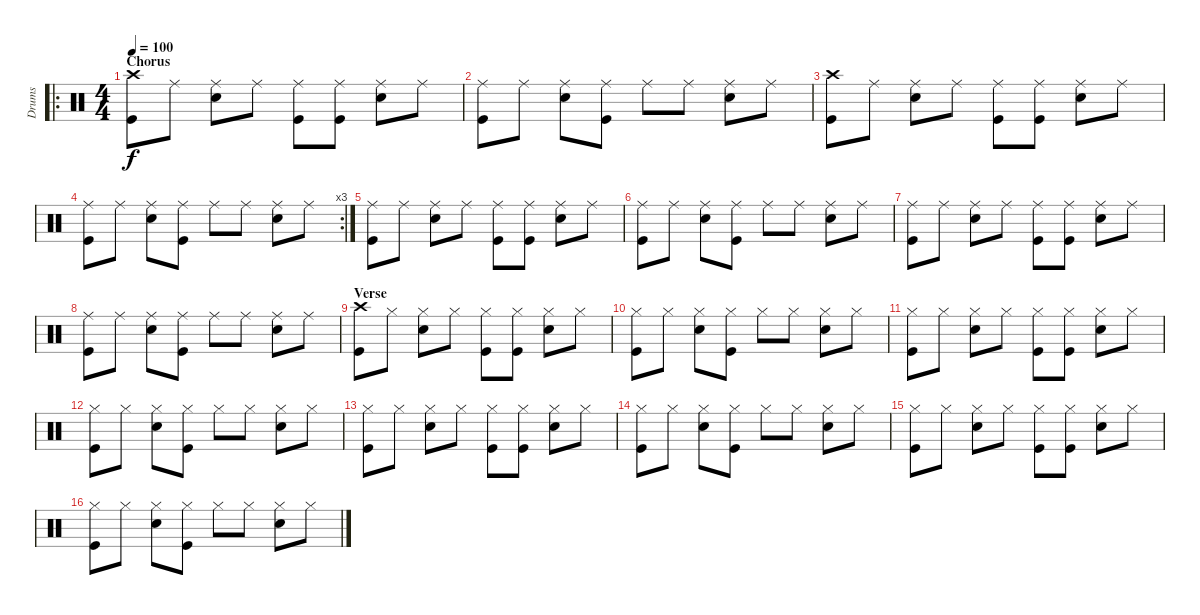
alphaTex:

\track ("Drums" "Drums") {instrument percussion}
\staff {score}
\articulation defaults
\ro
\ts (4 4)
\section ("" "Chorus")
\tempo 100
\clef neutral
\ks c
("Crash high (hit)" "Kick (hit)").8{dy f} "Ride (middle)".8 ("Ride (middle)" "Snare (hit) 2").8 "Ride (middle)".8 ("Ride (middle)" "Kick (hit)").8 ("Ride (middle)" "Kick (hit)").8 ("Ride (middle)" "Snare (hit) 2").8 "Ride (middle)".8 |
("Ride (middle)" "Kick (hit)").8 "Ride (middle)".8 ("Ride (middle)" "Snare (hit) 2").8 ("Ride (middle)" "Kick (hit)").8 "Ride (middle)".8 "Ride (middle)".8 ("Ride (middle)" "Snare (hit) 2").8 "Ride (middle)".8 |
("Crash high (hit)" "Kick (hit)").8 "Ride (middle)".8 ("Ride (middle)" "Snare (hit) 2").8 "Ride (middle)".8 ("Ride (middle)" "Kick (hit)").8 ("Ride (middle)" "Kick (hit)").8 ("Ride (middle)" "Snare (hit) 2").8 "Ride (middle)".8 |
\rc 3
("Ride (middle)" "Kick (hit)").8 "Ride (middle)".8 ("Ride (middle)" "Snare (hit) 2").8 ("Ride (middle)" "Kick (hit)").8 "Ride (middle)".8 "Ride (middle)".8 ("Ride (middle)" "Snare (hit) 2").8 "Ride (middle)".8 |
("Ride (middle)" "Kick (hit)").8 "Ride (middle)".8 ("Ride (middle)" "Snare (hit) 2").8 "Ride (middle)".8 ("Ride (middle)" "Kick (hit)").8 ("Ride (middle)" "Kick (hit)").8 ("Ride (middle)" "Snare (hit) 2").8 "Ride (middle)".8 |
("Ride (middle)" "Kick (hit)").8 "Ride (middle)".8 ("Ride (middle)" "Snare (hit) 2").8 ("Ride (middle)" "Kick (hit)").8 "Ride (middle)".8 "Ride (middle)".8 ("Ride (middle)" "Snare (hit) 2").8 "Ride (middle)".8 |
("Ride (middle)" "Kick (hit)").8 "Ride (middle)".8 ("Ride (middle)" "Snare (hit) 2").8 "Ride (middle)".8 ("Ride (middle)" "Kick (hit)").8 ("Ride (middle)" "Kick (hit)").8 ("Ride (middle)" "Snare (hit) 2").8 "Ride (middle)".8 |
("Ride (middle)" "Kick (hit)").8 "Ride (middle)".8 ("Ride (middle)" "Snare (hit) 2").8 ("Ride (middle)" "Kick (hit)").8 "Ride (middle)".8 "Ride (middle)".8 ("Ride (middle)" "Snare (hit) 2").8 "Ride (middle)".8 |
\section ("" "Verse")
("Crash high (hit)" "Kick (hit)").8 "Hi-Hat (closed)".8 ("Hi-Hat (closed)" "Snare (hit) 2").8 "Hi-Hat (closed)".8 ("Hi-Hat (closed)" "Kick (hit)").8 ("Hi-Hat (closed)" "Kick (hit)").8 ("Hi-Hat (closed)" "Snare (hit) 2").8 "Hi-Hat (closed)".8 |
("Hi-Hat (closed)" "Kick (hit)").8 "Hi-Hat (closed)".8 ("Hi-Hat (closed)" "Snare (hit) 2").8 ("Hi-Hat (closed)" "Kick (hit)").8 "Hi-Hat (closed)".8 "Hi-Hat (closed)".8 ("Hi-Hat (closed)" "Snare (hit) 2").8 "Hi-Hat (closed)".8 |
("Hi-Hat (closed)" "Kick (hit)").8 "Hi-Hat (closed)".8 ("Hi-Hat (closed)" "Snare (hit) 2").8 "Hi-Hat (closed)".8 ("Hi-Hat (closed)" "Kick (hit)").8 ("Hi-Hat (closed)" "Kick (hit)").8 ("Hi-Hat (closed)" "Snare (hit) 2").8 "Hi-Hat (closed)".8 |
("Hi-Hat (closed)" "Kick (hit)").8 "Hi-Hat (closed)".8 ("Hi-Hat (closed)" "Snare (hit) 2").8 ("Hi-Hat (closed)" "Kick (hit)").8 "Hi-Hat (closed)".8 "Hi-Hat (closed)".8 ("Hi-Hat (closed)" "Snare (hit) 2").8 "Hi-Hat (closed)".8 |
("Hi-Hat (closed)" "Kick (hit)").8 "Hi-Hat (closed)".8 ("Hi-Hat (closed)" "Snare (hit) 2").8 "Hi-Hat (closed)".8 ("Hi-Hat (closed)" "Kick (hit)").8 ("Hi-Hat (closed)" "Kick (hit)").8 ("Hi-Hat (closed)" "Snare (hit) 2").8 "Hi-Hat (closed)".8 |
("Hi-Hat (closed)" "Kick (hit)").8 "Hi-Hat (closed)".8 ("Hi-Hat (closed)" "Snare (hit) 2").8 ("Hi-Hat (closed)" "Kick (hit)").8 "Hi-Hat (closed)".8 "Hi-Hat (closed)".8 ("Hi-Hat (closed)" "Snare (hit) 2").8 "Hi-Hat (closed)".8 |
("Hi-Hat (closed)" "Kick (hit)").8 "Hi-Hat (closed)".8 ("Hi-Hat (closed)" "Snare (hit) 2").8 "Hi-Hat (closed)".8 ("Hi-Hat (closed)" "Kick (hit)").8 ("Hi-Hat (closed)" "Kick (hit)").8 ("Hi-Hat (closed)" "Snare (hit) 2").8 "Hi-Hat (closed)".8 |
("Hi-Hat (closed)" "Kick (hit)").8 "Hi-Hat (closed)".8 ("Hi-Hat (closed)" "Snare (hit) 2").8 ("Hi-Hat (closed)" "Kick (hit)").8 "Hi-Hat (closed)".8 "Hi-Hat (closed)".8 ("Hi-Hat (closed)" "Snare (hit) 2").8 "Hi-Hat (closed)".8
